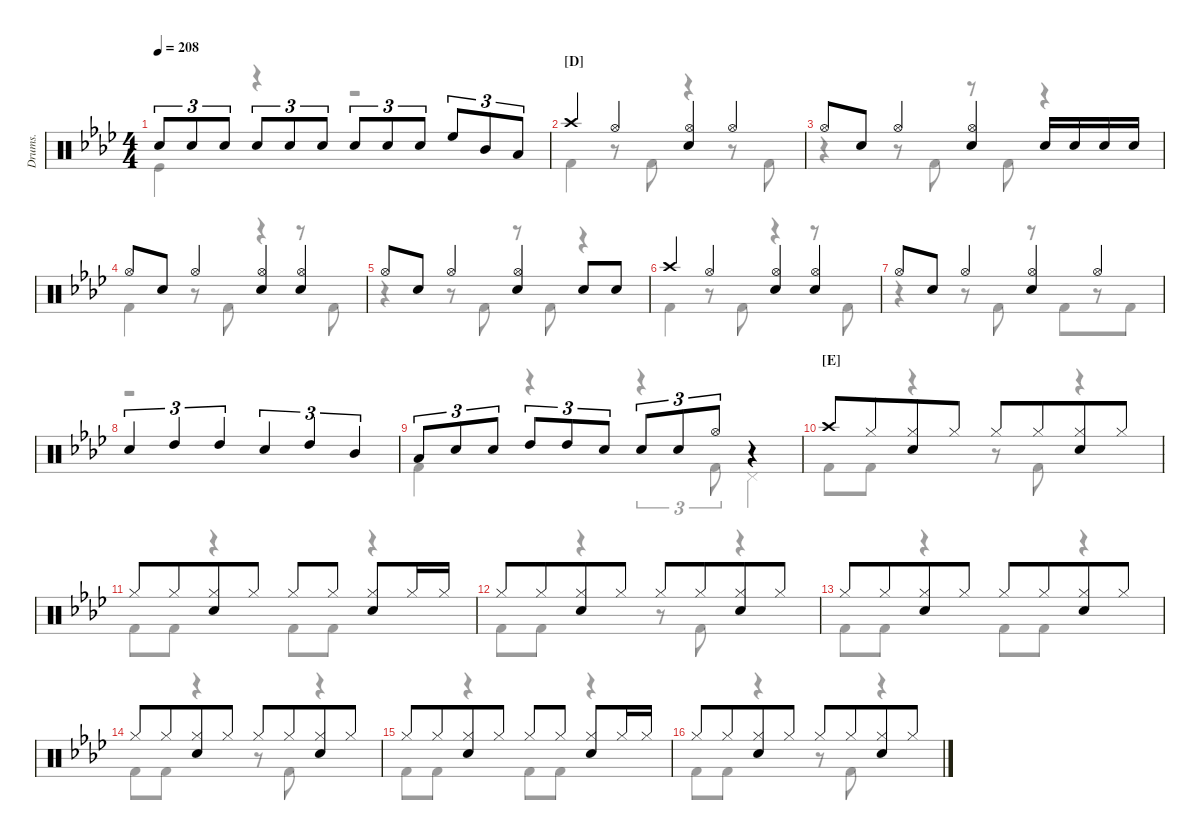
\defaultSystemsLayout 4
\hideDynamics
\otherSystemsTrackNameOrientation horizontal
\track ("Drumkit" "Drums.") {defaultSystemsLayout 4 instrument percussion}
\staff {score}
\articulation defaults
\voice
\ts (4 4)
\tempo 208
\clef neutral
\ks fminor "Snare (hit) 2"{acc forcenatural}.8{tu (3 2) dy mf} "Snare (hit) 2"{acc forcenatural}.8{tu (3 2)} "Snare (hit) 2"{acc forcenatural}.8{tu (3 2)} "Snare (hit) 2"{acc forcenatural}.8{tu (3 2)} "Snare (hit) 2"{acc forcenatural}.8{tu (3 2)} "Snare (hit) 2"{acc forcenatural}.8{tu (3 2)} "Snare (hit) 2"{acc forcenatural}.8{tu (3 2)} "Snare (hit) 2"{acc forcenatural}.8{tu (3 2)} "Snare (hit) 2"{acc forcenatural}.8{tu (3 2)} "High Floor Tom (hit)"{acc forcenatural}.8{tu (3 2)} "Mid Tom (hit)"{acc forcenatural}.8{tu (3 2)} "Low Tom (hit)"{acc forcenatural}.8{tu (3 2)}
|
\section ("D" "")
"Crash high (hit)"{acc forcenatural}.4 "Hi-Hat (open)"{acc forcenatural}.4 ("Hi-Hat (open)"{acc forcenatural} "Snare (hit) 2"{acc forcenatural}).4 "Hi-Hat (open)"{acc forcenatural}.4 |
"Hi-Hat (open)"{acc forcenatural}.8 "Snare (hit) 2"{acc forcenatural}.8 "Hi-Hat (open)"{acc forcenatural}.4 ("Snare (hit) 2"{acc forcenatural} "Hi-Hat (open)"{acc forcenatural}).4 "Snare (hit) 2"{acc forcenatural}.16 "Snare (hit) 2"{acc forcenatural}.16 "Snare (hit) 2"{acc forcenatural}.16 "Snare (hit) 2"{acc forcenatural}.16 |
"Hi-Hat (open)"{acc forcenatural}.8 "Snare (hit) 2"{acc forcenatural}.8 "Hi-Hat (open)"{acc forcenatural}.4 ("Snare (hit) 2"{acc forcenatural} "Hi-Hat (open)"{acc forcenatural}).4 ("Snare (hit) 2"{acc forcenatural} "Hi-Hat (open)"{acc forcenatural}).4 |
"Hi-Hat (open)"{acc forcenatural}.8 "Snare (hit) 2"{acc forcenatural}.8 "Hi-Hat (open)"{acc forcenatural}.4 ("Snare (hit) 2"{acc forcenatural} "Hi-Hat (open)"{acc forcenatural}).4 "Snare (hit) 2"{acc forcenatural}.8 "Snare (hit) 2"{acc forcenatural}.8 |
"Crash high (hit)"{acc forcenatural}.4 "Hi-Hat (open)"{acc forcenatural}.4 ("Hi-Hat (open)"{acc forcenatural} "Snare (hit) 2"{acc forcenatural}).4 ("Hi-Hat (open)"{acc forcenatural} "Snare (hit) 2"{acc forcenatural}).4 |
"Hi-Hat (open)"{acc forcenatural}.8 "Snare (hit) 2"{acc forcenatural}.8 "Hi-Hat (open)"{acc forcenatural}.4 ("Snare (hit) 2"{acc forcenatural} "Hi-Hat (open)"{acc forcenatural}).4 "Hi-Hat (open)"{acc forcenatural}.4 |
"Snare (hit) 2"{acc forcenatural}.4{tu (3 2)} "High Tom (hit)"{acc forcenatural}.4{tu (3 2)} "High Tom (hit)"{acc forcenatural}.4{tu (3 2)} "Snare (hit) 2"{acc forcenatural}.4{tu (3 2)} "High Tom (hit)"{acc forcenatural}.4{tu (3 2)} "Mid Tom (hit)"{acc forcenatural}.4{tu (3 2)} |
"Low Tom (hit)"{acc forcenatural}.8{tu (3 2)} "Snare (hit) 2"{acc forcenatural}.8{tu (3 2)} "Snare (hit) 2"{acc forcenatural}.8{tu (3 2)} "High Tom (hit)"{acc forcenatural}.8{tu (3 2)} "High Tom (hit)"{acc forcenatural}.8{tu (3 2)} "Snare (hit) 2"{acc forcenatural}.8{tu (3 2)} "Snare (hit) 2"{acc forcenatural}.8{tu (3 2)} "Snare (hit) 2"{acc forcenatural}.8{tu (3 2)} "Hi-Hat (open)"{acc forcenatural}.8{tu (3 2)} r.4 |
\section ("E" "")
"Crash high (hit)"{acc forcenatural}.8 "Hi-Hat (closed)"{acc forcenatural}.8{beam merge} ("Hi-Hat (closed)"{acc forcenatural} "Snare (hit) 2"{acc forcenatural}).8 "Hi-Hat (closed)"{acc forcenatural}.8 "Hi-Hat (closed)"{acc forcenatural}.8 "Hi-Hat (closed)"{acc forcenatural}.8{beam merge} ("Hi-Hat (closed)"{acc forcenatural} "Snare (hit) 2"{acc forcenatural}).8 "Hi-Hat (closed)"{acc forcenatural}.8 |
"Hi-Hat (closed)"{acc forcenatural}.8 "Hi-Hat (closed)"{acc forcenatural}.8{beam merge} ("Hi-Hat (closed)"{acc forcenatural} "Snare (hit) 2"{acc forcenatural}).8 "Hi-Hat (closed)"{acc forcenatural}.8 "Hi-Hat (closed)"{acc forcenatural}.8 "Hi-Hat (closed)"{acc forcenatural}.8{beam split} ("Hi-Hat (closed)"{acc forcenatural} "Snare (hit) 2"{acc forcenatural}).8 "Hi-Hat (closed)"{acc forcenatural}.16 "Hi-Hat (closed)"{acc forcenatural}.16 |
"Hi-Hat (closed)"{acc forcenatural}.8 "Hi-Hat (closed)"{acc forcenatural}.8{beam merge} ("Hi-Hat (closed)"{acc forcenatural} "Snare (hit) 2"{acc forcenatural}).8 "Hi-Hat (closed)"{acc forcenatural}.8 "Hi-Hat (closed)"{acc forcenatural}.8 "Hi-Hat (closed)"{acc forcenatural}.8{beam merge} ("Hi-Hat (closed)"{acc forcenatural} "Snare (hit) 2"{acc forcenatural}).8 "Hi-Hat (closed)"{acc forcenatural}.8 |
"Hi-Hat (closed)"{acc forcenatural}.8 "Hi-Hat (closed)"{acc forcenatural}.8{beam merge} ("Hi-Hat (closed)"{acc forcenatural} "Snare (hit) 2"{acc forcenatural}).8 "Hi-Hat (closed)"{acc forcenatural}.8 "Hi-Hat (closed)"{acc forcenatural}.8 "Hi-Hat (closed)"{acc forcenatural}.8{beam merge} ("Hi-Hat (closed)"{acc forcenatural} "Snare (hit) 2"{acc forcenatural}).8 "Hi-Hat (closed)"{acc forcenatural}.8 |
"Hi-Hat (closed)"{acc forcenatural}.8 "Hi-Hat (closed)"{acc forcenatural}.8{beam merge} ("Hi-Hat (closed)"{acc forcenatural} "Snare (hit) 2"{acc forcenatural}).8 "Hi-Hat (closed)"{acc forcenatural}.8 "Hi-Hat (closed)"{acc forcenatural}.8 "Hi-Hat (closed)"{acc forcenatural}.8{beam merge} ("Hi-Hat (closed)"{acc forcenatural} "Snare (hit) 2"{acc forcenatural}).8 "Hi-Hat (closed)"{acc forcenatural}.8 |
"Hi-Hat (closed)"{acc forcenatural}.8 "Hi-Hat (closed)"{acc forcenatural}.8{beam merge} ("Hi-Hat (closed)"{acc forcenatural} "Snare (hit) 2"{acc forcenatural}).8 "Hi-Hat (closed)"{acc forcenatural}.8 "Hi-Hat (closed)"{acc forcenatural}.8 "Hi-Hat (closed)"{acc forcenatural}.8{beam split} ("Hi-Hat (closed)"{acc forcenatural} "Snare (hit) 2"{acc forcenatural}).8 "Hi-Hat (closed)"{acc forcenatural}.16 "Hi-Hat (closed)"{acc forcenatural}.16 |
"Hi-Hat (closed)"{acc forcenatural}.8 "Hi-Hat (closed)"{acc forcenatural}.8{beam merge} ("Hi-Hat (closed)"{acc forcenatural} "Snare (hit) 2"{acc forcenatural}).8 "Hi-Hat (closed)"{acc forcenatural}.8 "Hi-Hat (closed)"{acc forcenatural}.8 "Hi-Hat (closed)"{acc forcenatural}.8{beam merge} ("Hi-Hat (closed)"{acc forcenatural} "Snare (hit) 2"{acc forcenatural}).8 "Hi-Hat (closed)"{acc forcenatural}.8
\voice
\clef neutral
\ottava regular
\simile none
\ks fminor "Kick (hit)"{acc forcenatural}.4{dy mf}
r.4 r.2 |
"Kick (hit) 2"{acc forcenatural}.4 r.8 "Kick (hit) 2"{acc forcenatural}.8 r.4 r.8 "Kick (hit) 2"{acc forcenatural}.8 |
r.4 r.8 "Kick (hit) 2"{acc forcenatural}.8 r.8 "Kick (hit) 2"{acc forcenatural}.8 r.4 |
"Kick (hit) 2"{acc forcenatural}.4 r.8 "Kick (hit) 2"{acc forcenatural}.8 r.4 r.8 "Kick (hit) 2"{acc forcenatural}.8 |
r.4 r.8 "Kick (hit) 2"{acc forcenatural}.8 r.8 "Kick (hit) 2"{acc forcenatural}.8 r.4 |
"Kick (hit) 2"{acc forcenatural}.4 r.8 "Kick (hit) 2"{acc forcenatural}.8 r.4 r.8 "Kick (hit) 2"{acc forcenatural}.8 |
r.4 r.8 "Kick (hit) 2"{acc forcenatural}.8 r.8 "Kick (hit) 2"{acc forcenatural}.8{beam merge} r.8{beam merge} "Kick (hit) 2"{acc forcenatural}.8 |
r.1 |
"Kick (hit) 2"{acc forcenatural}.4 r.4 r.4{tu (3 2)} "Kick (hit) 2"{acc forcenatural}.8{tu (3 2)} "Pedal Hi-Hat (hit)"{acc forcenatural}.4 |
"Kick (hit) 2"{acc forcenatural}.8 "Kick (hit) 2"{acc forcenatural}.8 r.4 r.8 "Kick (hit) 2"{acc forcenatural}.8 r.4 |
"Kick (hit) 2"{acc forcenatural}.8 "Kick (hit) 2"{acc forcenatural}.8 r.4 "Kick (hit) 2"{acc forcenatural}.8 "Kick (hit) 2"{acc forcenatural}.8 r.4 |
"Kick (hit) 2"{acc forcenatural}.8 "Kick (hit) 2"{acc forcenatural}.8 r.4 r.8 "Kick (hit) 2"{acc forcenatural}.8 r.4 |
"Kick (hit) 2"{acc forcenatural}.8 "Kick (hit) 2"{acc forcenatural}.8 r.4 "Kick (hit) 2"{acc forcenatural}.8 "Kick (hit) 2"{acc forcenatural}.8 r.4 |
"Kick (hit) 2"{acc forcenatural}.8 "Kick (hit) 2"{acc forcenatural}.8 r.4 r.8 "Kick (hit) 2"{acc forcenatural}.8 r.4 |
"Kick (hit) 2"{acc forcenatural}.8 "Kick (hit) 2"{acc forcenatural}.8 r.4 "Kick (hit) 2"{acc forcenatural}.8 "Kick (hit) 2"{acc forcenatural}.8 r.4 |
"Kick (hit) 2"{acc forcenatural}.8 "Kick (hit) 2"{acc forcenatural}.8 r.4 r.8 "Kick (hit) 2"{acc forcenatural}.8 r.4
